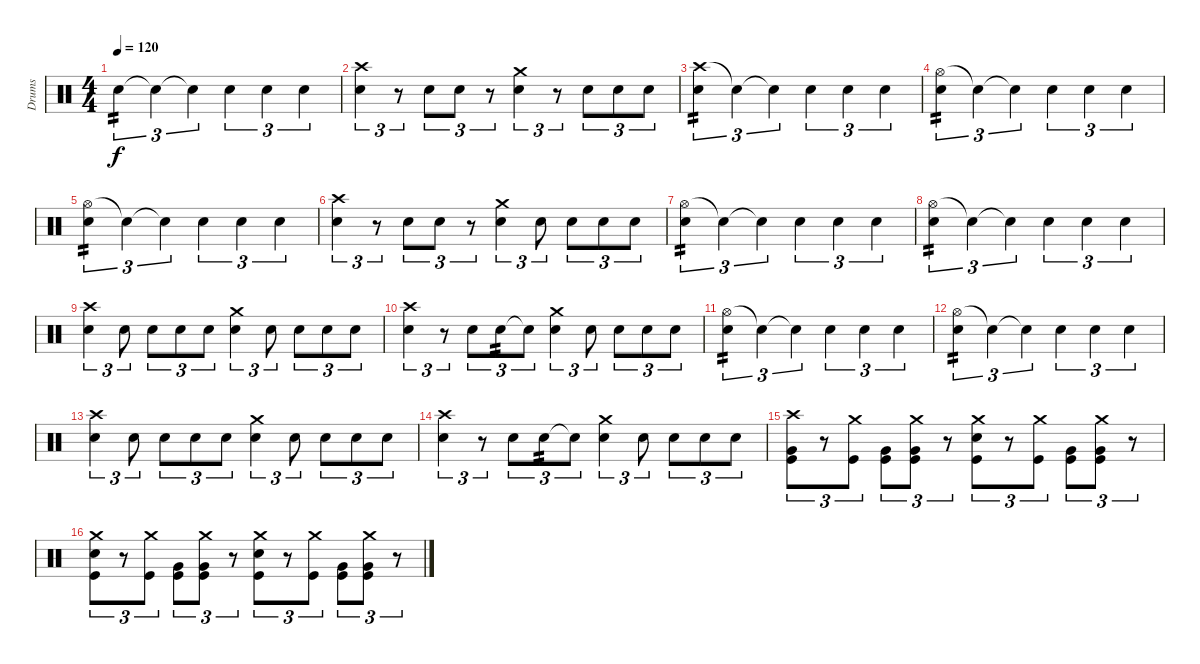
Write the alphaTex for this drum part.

\track ("Drums" "Drums") {instrument percussion}
\staff {score}
\articulation defaults
\ts (4 4)
\tempo 120
\clef neutral
\ks c "Snare (hit) 2".4{tu (3 2) tp 2 dy f} "Snare (hit) 2"{t}.4{tu (3 2)} "Snare (hit) 2"{t}.4{tu (3 2)} "Snare (hit) 2".4{tu (3 2)} "Snare (hit) 2".4{tu (3 2)} "Snare (hit) 2".4{tu (3 2)}
|
("Crash high (hit)" "Snare (hit) 2").4{tu (3 2)} r.8{tu (3 2)} "Snare (hit) 2".8{tu (3 2)} "Snare (hit) 2".8{tu (3 2)} r.8{tu (3 2)} ("Crash medium (hit)" "Snare (hit) 2").4{tu (3 2)} r.8{tu (3 2)} "Snare (hit) 2".8{tu (3 2)} "Snare (hit) 2".8{tu (3 2)} "Snare (hit) 2".8{tu (3 2)} |
("Crash high (hit)" "Snare (hit) 2").4{tu (3 2) tp 2} "Snare (hit) 2"{t}.4{tu (3 2)} "Snare (hit) 2"{t}.4{tu (3 2)} "Snare (hit) 2".4{tu (3 2)} "Snare (hit) 2".4{tu (3 2)} "Snare (hit) 2".4{tu (3 2)} |
("Hi-Hat (open)" "Snare (hit) 2").4{tu (3 2) tp 2} "Snare (hit) 2"{t}.4{tu (3 2)} "Snare (hit) 2"{t}.4{tu (3 2)} "Snare (hit) 2".4{tu (3 2)} "Snare (hit) 2".4{tu (3 2)} "Snare (hit) 2".4{tu (3 2)} |
("Hi-Hat (open)" "Snare (hit) 2").4{tu (3 2) tp 2} "Snare (hit) 2"{t}.4{tu (3 2)} "Snare (hit) 2"{t}.4{tu (3 2)} "Snare (hit) 2".4{tu (3 2)} "Snare (hit) 2".4{tu (3 2)} "Snare (hit) 2".4{tu (3 2)} |
("Crash high (hit)" "Snare (hit) 2").4{tu (3 2)} r.8{tu (3 2)} "Snare (hit) 2".8{tu (3 2)} "Snare (hit) 2".8{tu (3 2)} r.8{tu (3 2)} ("Crash medium (hit)" "Snare (hit) 2").4{tu (3 2)} "Snare (hit) 2".8{tu (3 2)} "Snare (hit) 2".8{tu (3 2)} "Snare (hit) 2".8{tu (3 2)} "Snare (hit) 2".8{tu (3 2)} |
("Hi-Hat (open)" "Snare (hit) 2").4{tu (3 2) tp 2} "Snare (hit) 2"{t}.4{tu (3 2)} "Snare (hit) 2"{t}.4{tu (3 2)} "Snare (hit) 2".4{tu (3 2)} "Snare (hit) 2".4{tu (3 2)} "Snare (hit) 2".4{tu (3 2)} |
("Hi-Hat (open)" "Snare (hit) 2").4{tu (3 2) tp 2} "Snare (hit) 2"{t}.4{tu (3 2)} "Snare (hit) 2"{t}.4{tu (3 2)} "Snare (hit) 2".4{tu (3 2)} "Snare (hit) 2".4{tu (3 2)} "Snare (hit) 2".4{tu (3 2)} |
("Crash high (hit)" "Snare (hit) 2").4{tu (3 2)} "Snare (hit) 2".8{tu (3 2)} "Snare (hit) 2".8{tu (3 2)} "Snare (hit) 2".8{tu (3 2)} "Snare (hit) 2".8{tu (3 2)} ("Crash medium (hit)" "Snare (hit) 2").4{tu (3 2)} "Snare (hit) 2".8{tu (3 2)} "Snare (hit) 2".8{tu (3 2)} "Snare (hit) 2".8{tu (3 2)} "Snare (hit) 2".8{tu (3 2)} |
("Crash high (hit)" "Snare (hit) 2").4{tu (3 2)} r.8{tu (3 2)} "Snare (hit) 2".8{tu (3 2)} "Snare (hit) 2".8{tu (3 2) tp 2} "Snare (hit)"{t}.8{tu (3 2)} ("Crash medium (hit)" "Snare (hit) 2").4{tu (3 2)} "Snare (hit) 2".8{tu (3 2)} "Snare (hit) 2".8{tu (3 2)} "Snare (hit) 2".8{tu (3 2)} "Snare (hit) 2".8{tu (3 2)} |
("Hi-Hat (open)" "Snare (hit) 2").4{tu (3 2) tp 2} "Snare (hit) 2"{t}.4{tu (3 2)} "Snare (hit) 2"{t}.4{tu (3 2)} "Snare (hit) 2".4{tu (3 2)} "Snare (hit) 2".4{tu (3 2)} "Snare (hit) 2".4{tu (3 2)} |
("Hi-Hat (open)" "Snare (hit) 2").4{tu (3 2) tp 2} "Snare (hit) 2"{t}.4{tu (3 2)} "Snare (hit) 2"{t}.4{tu (3 2)} "Snare (hit) 2".4{tu (3 2)} "Snare (hit) 2".4{tu (3 2)} "Snare (hit) 2".4{tu (3 2)} |
("Crash high (hit)" "Snare (hit) 2").4{tu (3 2)} "Snare (hit) 2".8{tu (3 2)} "Snare (hit) 2".8{tu (3 2)} "Snare (hit) 2".8{tu (3 2)} "Snare (hit) 2".8{tu (3 2)} ("Crash medium (hit)" "Snare (hit) 2").4{tu (3 2)} "Snare (hit) 2".8{tu (3 2)} "Snare (hit) 2".8{tu (3 2)} "Snare (hit) 2".8{tu (3 2)} "Snare (hit) 2".8{tu (3 2)} |
("Crash high (hit)" "Snare (hit) 2").4{tu (3 2)} r.8{tu (3 2)} "Snare (hit) 2".8{tu (3 2)} "Snare (hit) 2".8{tu (3 2) tp 2} "Snare (hit)"{t}.8{tu (3 2)} ("Crash medium (hit)" "Snare (hit) 2").4{tu (3 2)} "Snare (hit) 2".8{tu (3 2)} "Snare (hit) 2".8{tu (3 2)} "Snare (hit) 2".8{tu (3 2)} "Snare (hit) 2".8{tu (3 2)} |
("Crash high (hit)" "Very Low Tom (hit)" "Kick (hit)").8{tu (3 2)} r.8{tu (3 2)} ("Crash medium (hit)" "Kick (hit)").8{tu (3 2)} ("Very Low Tom (hit)" "Kick (hit)").8{tu (3 2)} ("Crash medium (hit)" "Very Low Tom (hit)" "Kick (hit)").8{tu (3 2)} r.8{tu (3 2)} ("Crash medium (hit)" "Snare (hit) 2" "Kick (hit)").8{tu (3 2)} r.8{tu (3 2)} ("Crash medium (hit)" "Kick (hit)").8{tu (3 2)} ("Very Low Tom (hit)" "Kick (hit)").8{tu (3 2)} ("Crash medium (hit)" "Very Low Tom (hit)" "Kick (hit)").8{tu (3 2)} r.8{tu (3 2)} |
("Crash medium (hit)" "Snare (hit) 2" "Kick (hit)").8{tu (3 2)} r.8{tu (3 2)} ("Crash medium (hit)" "Kick (hit)").8{tu (3 2)} ("Very Low Tom (hit)" "Kick (hit)").8{tu (3 2)} ("Crash medium (hit)" "Very Low Tom (hit)" "Kick (hit)").8{tu (3 2)} r.8{tu (3 2)} ("Crash medium (hit)" "Snare (hit) 2" "Kick (hit)").8{tu (3 2)} r.8{tu (3 2)} ("Crash medium (hit)" "Kick (hit)").8{tu (3 2)} ("Very Low Tom (hit)" "Kick (hit)").8{tu (3 2)} ("Crash medium (hit)" "Very Low Tom (hit)" "Kick (hit)").8{tu (3 2)} r.8{tu (3 2)}
